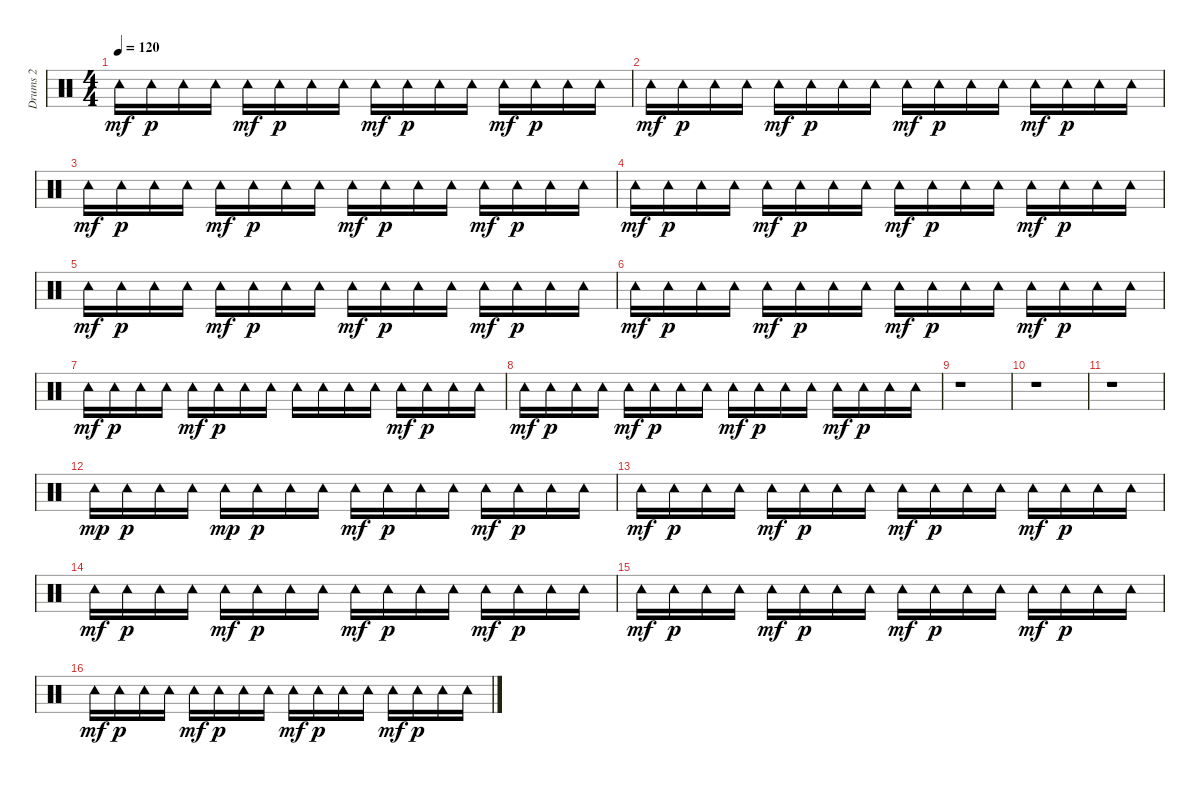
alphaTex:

\track ("Drums 2" "Drums 2") {instrument percussion}
\staff {score}
\articulation defaults
\ts (4 4)
\tempo 120
\clef neutral
\ks c "Tambourine (hit)".16{dy mf} "Tambourine (hit)".16{dy p} "Tambourine (hit)".16 "Tambourine (hit)".16 "Tambourine (hit)".16{dy mf} "Tambourine (hit)".16{dy p} "Tambourine (hit)".16 "Tambourine (hit)".16 "Tambourine (hit)".16{dy mf} "Tambourine (hit)".16{dy p} "Tambourine (hit)".16 "Tambourine (hit)".16 "Tambourine (hit)".16{dy mf} "Tambourine (hit)".16{dy p} "Tambourine (hit)".16 "Tambourine (hit)".16
|
"Tambourine (hit)".16{dy mf} "Tambourine (hit)".16{dy p} "Tambourine (hit)".16 "Tambourine (hit)".16 "Tambourine (hit)".16{dy mf} "Tambourine (hit)".16{dy p} "Tambourine (hit)".16 "Tambourine (hit)".16 "Tambourine (hit)".16{dy mf} "Tambourine (hit)".16{dy p} "Tambourine (hit)".16 "Tambourine (hit)".16 "Tambourine (hit)".16{dy mf} "Tambourine (hit)".16{dy p} "Tambourine (hit)".16 "Tambourine (hit)".16 |
"Tambourine (hit)".16{dy mf} "Tambourine (hit)".16{dy p} "Tambourine (hit)".16 "Tambourine (hit)".16 "Tambourine (hit)".16{dy mf} "Tambourine (hit)".16{dy p} "Tambourine (hit)".16 "Tambourine (hit)".16 "Tambourine (hit)".16{dy mf} "Tambourine (hit)".16{dy p} "Tambourine (hit)".16 "Tambourine (hit)".16 "Tambourine (hit)".16{dy mf} "Tambourine (hit)".16{dy p} "Tambourine (hit)".16 "Tambourine (hit)".16 |
"Tambourine (hit)".16{dy mf} "Tambourine (hit)".16{dy p} "Tambourine (hit)".16 "Tambourine (hit)".16 "Tambourine (hit)".16{dy mf} "Tambourine (hit)".16{dy p} "Tambourine (hit)".16 "Tambourine (hit)".16 "Tambourine (hit)".16{dy mf} "Tambourine (hit)".16{dy p} "Tambourine (hit)".16 "Tambourine (hit)".16 "Tambourine (hit)".16{dy mf} "Tambourine (hit)".16{dy p} "Tambourine (hit)".16 "Tambourine (hit)".16 |
"Tambourine (hit)".16{dy mf} "Tambourine (hit)".16{dy p} "Tambourine (hit)".16 "Tambourine (hit)".16 "Tambourine (hit)".16{dy mf} "Tambourine (hit)".16{dy p} "Tambourine (hit)".16 "Tambourine (hit)".16 "Tambourine (hit)".16{dy mf} "Tambourine (hit)".16{dy p} "Tambourine (hit)".16 "Tambourine (hit)".16 "Tambourine (hit)".16{dy mf} "Tambourine (hit)".16{dy p} "Tambourine (hit)".16 "Tambourine (hit)".16 |
"Tambourine (hit)".16{dy mf} "Tambourine (hit)".16{dy p} "Tambourine (hit)".16 "Tambourine (hit)".16 "Tambourine (hit)".16{dy mf} "Tambourine (hit)".16{dy p} "Tambourine (hit)".16 "Tambourine (hit)".16 "Tambourine (hit)".16{dy mf} "Tambourine (hit)".16{dy p} "Tambourine (hit)".16 "Tambourine (hit)".16 "Tambourine (hit)".16{dy mf} "Tambourine (hit)".16{dy p} "Tambourine (hit)".16 "Tambourine (hit)".16 |
"Tambourine (hit)".16{dy mf} "Tambourine (hit)".16{dy p} "Tambourine (hit)".16 "Tambourine (hit)".16 "Tambourine (hit)".16{dy mf} "Tambourine (hit)".16{dy p} "Tambourine (hit)".16 "Tambourine (hit)".16 "Tambourine (hit)".16 "Tambourine (hit)".16 "Tambourine (hit)".16 "Tambourine (hit)".16 "Tambourine (hit)".16{dy mf} "Tambourine (hit)".16{dy p} "Tambourine (hit)".16 "Tambourine (hit)".16 |
"Tambourine (hit)".16{dy mf} "Tambourine (hit)".16{dy p} "Tambourine (hit)".16 "Tambourine (hit)".16 "Tambourine (hit)".16{dy mf} "Tambourine (hit)".16{dy p} "Tambourine (hit)".16 "Tambourine (hit)".16 "Tambourine (hit)".16{dy mf} "Tambourine (hit)".16{dy p} "Tambourine (hit)".16 "Tambourine (hit)".16 "Tambourine (hit)".16{dy mf} "Tambourine (hit)".16{dy p} "Tambourine (hit)".16 "Tambourine (hit)".16 |
r.1 |
r.1 |
r.1 |
"Tambourine (hit)".16{dy mp} "Tambourine (hit)".16{dy p} "Tambourine (hit)".16 "Tambourine (hit)".16 "Tambourine (hit)".16{dy mp} "Tambourine (hit)".16{dy p} "Tambourine (hit)".16 "Tambourine (hit)".16 "Tambourine (hit)".16{dy mf} "Tambourine (hit)".16{dy p} "Tambourine (hit)".16 "Tambourine (hit)".16 "Tambourine (hit)".16{dy mf} "Tambourine (hit)".16{dy p} "Tambourine (hit)".16 "Tambourine (hit)".16 |
"Tambourine (hit)".16{dy mf} "Tambourine (hit)".16{dy p} "Tambourine (hit)".16 "Tambourine (hit)".16 "Tambourine (hit)".16{dy mf} "Tambourine (hit)".16{dy p} "Tambourine (hit)".16 "Tambourine (hit)".16 "Tambourine (hit)".16{dy mf} "Tambourine (hit)".16{dy p} "Tambourine (hit)".16 "Tambourine (hit)".16 "Tambourine (hit)".16{dy mf} "Tambourine (hit)".16{dy p} "Tambourine (hit)".16 "Tambourine (hit)".16 |
"Tambourine (hit)".16{dy mf} "Tambourine (hit)".16{dy p} "Tambourine (hit)".16 "Tambourine (hit)".16 "Tambourine (hit)".16{dy mf} "Tambourine (hit)".16{dy p} "Tambourine (hit)".16 "Tambourine (hit)".16 "Tambourine (hit)".16{dy mf} "Tambourine (hit)".16{dy p} "Tambourine (hit)".16 "Tambourine (hit)".16 "Tambourine (hit)".16{dy mf} "Tambourine (hit)".16{dy p} "Tambourine (hit)".16 "Tambourine (hit)".16 |
"Tambourine (hit)".16{dy mf} "Tambourine (hit)".16{dy p} "Tambourine (hit)".16 "Tambourine (hit)".16 "Tambourine (hit)".16{dy mf} "Tambourine (hit)".16{dy p} "Tambourine (hit)".16 "Tambourine (hit)".16 "Tambourine (hit)".16{dy mf} "Tambourine (hit)".16{dy p} "Tambourine (hit)".16 "Tambourine (hit)".16 "Tambourine (hit)".16{dy mf} "Tambourine (hit)".16{dy p} "Tambourine (hit)".16 "Tambourine (hit)".16 |
"Tambourine (hit)".16{dy mf} "Tambourine (hit)".16{dy p} "Tambourine (hit)".16 "Tambourine (hit)".16 "Tambourine (hit)".16{dy mf} "Tambourine (hit)".16{dy p} "Tambourine (hit)".16 "Tambourine (hit)".16 "Tambourine (hit)".16{dy mf} "Tambourine (hit)".16{dy p} "Tambourine (hit)".16 "Tambourine (hit)".16 "Tambourine (hit)".16{dy mf} "Tambourine (hit)".16{dy p} "Tambourine (hit)".16 "Tambourine (hit)".16
